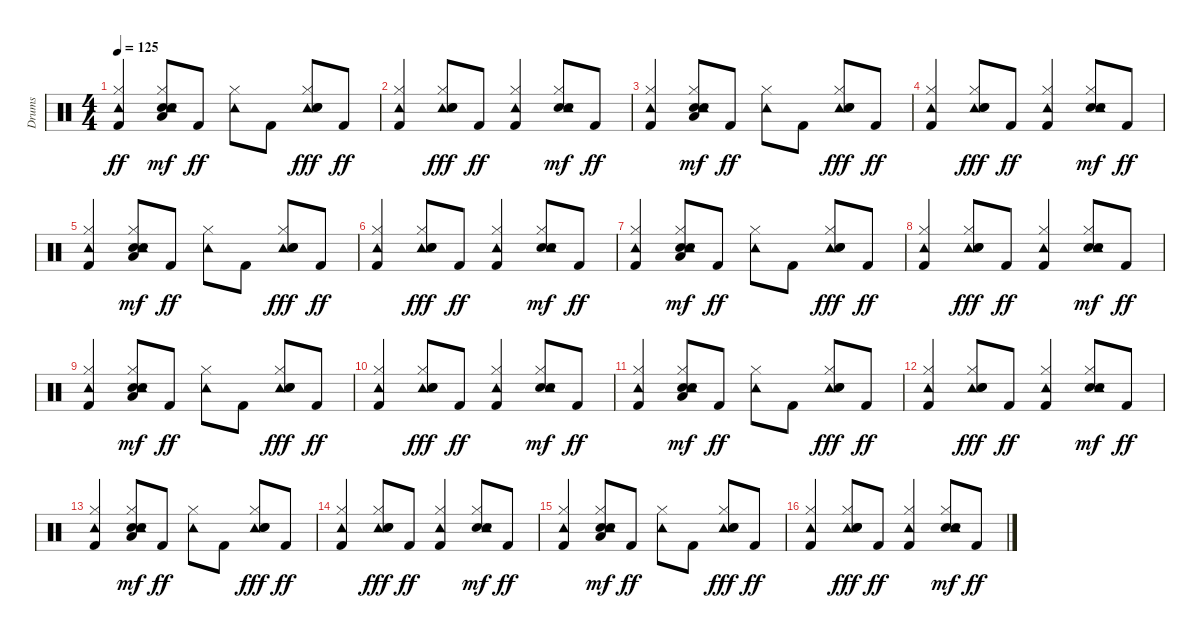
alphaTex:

\track ("Drums" "Drums") {instrument percussion}
\staff {score}
\articulation defaults
\ts (4 4)
\tempo 125
\clef neutral
\ks c
("Tambourine (hit)" "Hi-Hat (closed)" "Kick (hit) 2").4{dy ff} ("Hi-Hat (closed)" "Hand Clap (hit)" "Low Tom (hit)" "Snare (hit) 2" "Tambourine (hit)").8{dy mf} "Kick (hit) 2".8{dy ff} ("Tambourine (hit)" "Hi-Hat (closed)").8 "Kick (hit) 2".8 ("Tambourine (hit)" "Hi-Hat (closed)" "Hand Clap (hit)" "Snare (hit) 2").8{dy fff} "Kick (hit) 2".8{dy ff} |
("Tambourine (hit)" "Hi-Hat (closed)" "Kick (hit) 2").4 ("Tambourine (hit)" "Hi-Hat (closed)" "Hand Clap (hit)" "Snare (hit) 2").8{dy fff} "Kick (hit) 2".8{dy ff} ("Tambourine (hit)" "Hi-Hat (closed)" "Kick (hit) 2").4 ("Hi-Hat (closed)" "Hand Clap (hit)" "Snare (hit) 2" "Tambourine (hit)").8{dy mf} "Kick (hit) 2".8{dy ff} |
("Tambourine (hit)" "Hi-Hat (closed)" "Kick (hit) 2").4 ("Hi-Hat (closed)" "Hand Clap (hit)" "Low Tom (hit)" "Snare (hit) 2" "Tambourine (hit)").8{dy mf} "Kick (hit) 2".8{dy ff} ("Tambourine (hit)" "Hi-Hat (closed)").8 "Kick (hit) 2".8 ("Tambourine (hit)" "Hi-Hat (closed)" "Hand Clap (hit)" "Snare (hit) 2").8{dy fff} "Kick (hit) 2".8{dy ff} |
("Tambourine (hit)" "Hi-Hat (closed)" "Kick (hit) 2").4 ("Tambourine (hit)" "Hi-Hat (closed)" "Hand Clap (hit)" "Snare (hit) 2").8{dy fff} "Kick (hit) 2".8{dy ff} ("Tambourine (hit)" "Hi-Hat (closed)" "Kick (hit) 2").4 ("Hi-Hat (closed)" "Hand Clap (hit)" "Snare (hit) 2" "Tambourine (hit)").8{dy mf} "Kick (hit) 2".8{dy ff} |
("Tambourine (hit)" "Hi-Hat (closed)" "Kick (hit) 2").4 ("Hi-Hat (closed)" "Hand Clap (hit)" "Low Tom (hit)" "Snare (hit) 2" "Tambourine (hit)").8{dy mf} "Kick (hit) 2".8{dy ff} ("Tambourine (hit)" "Hi-Hat (closed)").8 "Kick (hit) 2".8 ("Tambourine (hit)" "Hi-Hat (closed)" "Hand Clap (hit)" "Snare (hit) 2").8{dy fff} "Kick (hit) 2".8{dy ff} |
("Tambourine (hit)" "Hi-Hat (closed)" "Kick (hit) 2").4 ("Tambourine (hit)" "Hi-Hat (closed)" "Hand Clap (hit)" "Snare (hit) 2").8{dy fff} "Kick (hit) 2".8{dy ff} ("Tambourine (hit)" "Hi-Hat (closed)" "Kick (hit) 2").4 ("Hi-Hat (closed)" "Hand Clap (hit)" "Snare (hit) 2" "Tambourine (hit)").8{dy mf} "Kick (hit) 2".8{dy ff} |
("Tambourine (hit)" "Hi-Hat (closed)" "Kick (hit) 2").4 ("Hi-Hat (closed)" "Hand Clap (hit)" "Low Tom (hit)" "Snare (hit) 2" "Tambourine (hit)").8{dy mf} "Kick (hit) 2".8{dy ff} ("Tambourine (hit)" "Hi-Hat (closed)").8 "Kick (hit) 2".8 ("Tambourine (hit)" "Hi-Hat (closed)" "Hand Clap (hit)" "Snare (hit) 2").8{dy fff} "Kick (hit) 2".8{dy ff} |
("Tambourine (hit)" "Hi-Hat (closed)" "Kick (hit) 2").4 ("Tambourine (hit)" "Hi-Hat (closed)" "Hand Clap (hit)" "Snare (hit) 2").8{dy fff} "Kick (hit) 2".8{dy ff} ("Tambourine (hit)" "Hi-Hat (closed)" "Kick (hit) 2").4 ("Hi-Hat (closed)" "Hand Clap (hit)" "Snare (hit) 2" "Tambourine (hit)").8{dy mf} "Kick (hit) 2".8{dy ff} |
("Tambourine (hit)" "Hi-Hat (closed)" "Kick (hit) 2").4 ("Hi-Hat (closed)" "Hand Clap (hit)" "Low Tom (hit)" "Snare (hit) 2" "Tambourine (hit)").8{dy mf} "Kick (hit) 2".8{dy ff} ("Tambourine (hit)" "Hi-Hat (closed)").8 "Kick (hit) 2".8 ("Tambourine (hit)" "Hi-Hat (closed)" "Hand Clap (hit)" "Snare (hit) 2").8{dy fff} "Kick (hit) 2".8{dy ff} |
("Tambourine (hit)" "Hi-Hat (closed)" "Kick (hit) 2").4 ("Tambourine (hit)" "Hi-Hat (closed)" "Hand Clap (hit)" "Snare (hit) 2").8{dy fff} "Kick (hit) 2".8{dy ff} ("Tambourine (hit)" "Hi-Hat (closed)" "Kick (hit) 2").4 ("Hi-Hat (closed)" "Hand Clap (hit)" "Snare (hit) 2" "Tambourine (hit)").8{dy mf} "Kick (hit) 2".8{dy ff} |
("Tambourine (hit)" "Hi-Hat (closed)" "Kick (hit) 2").4 ("Hi-Hat (closed)" "Hand Clap (hit)" "Low Tom (hit)" "Snare (hit) 2" "Tambourine (hit)").8{dy mf} "Kick (hit) 2".8{dy ff} ("Tambourine (hit)" "Hi-Hat (closed)").8 "Kick (hit) 2".8 ("Tambourine (hit)" "Hi-Hat (closed)" "Hand Clap (hit)" "Snare (hit) 2").8{dy fff} "Kick (hit) 2".8{dy ff} |
("Tambourine (hit)" "Hi-Hat (closed)" "Kick (hit) 2").4 ("Tambourine (hit)" "Hi-Hat (closed)" "Hand Clap (hit)" "Snare (hit) 2").8{dy fff} "Kick (hit) 2".8{dy ff} ("Tambourine (hit)" "Hi-Hat (closed)" "Kick (hit) 2").4 ("Hi-Hat (closed)" "Hand Clap (hit)" "Snare (hit) 2" "Tambourine (hit)").8{dy mf} "Kick (hit) 2".8{dy ff} |
("Tambourine (hit)" "Hi-Hat (closed)" "Kick (hit) 2").4 ("Hi-Hat (closed)" "Hand Clap (hit)" "Low Tom (hit)" "Snare (hit) 2" "Tambourine (hit)").8{dy mf} "Kick (hit) 2".8{dy ff} ("Tambourine (hit)" "Hi-Hat (closed)").8 "Kick (hit) 2".8 ("Tambourine (hit)" "Hi-Hat (closed)" "Hand Clap (hit)" "Snare (hit) 2").8{dy fff} "Kick (hit) 2".8{dy ff} |
("Tambourine (hit)" "Hi-Hat (closed)" "Kick (hit) 2").4 ("Tambourine (hit)" "Hi-Hat (closed)" "Hand Clap (hit)" "Snare (hit) 2").8{dy fff} "Kick (hit) 2".8{dy ff} ("Tambourine (hit)" "Hi-Hat (closed)" "Kick (hit) 2").4 ("Hi-Hat (closed)" "Hand Clap (hit)" "Snare (hit) 2" "Tambourine (hit)").8{dy mf} "Kick (hit) 2".8{dy ff} |
("Tambourine (hit)" "Hi-Hat (closed)" "Kick (hit) 2").4 ("Hi-Hat (closed)" "Hand Clap (hit)" "Low Tom (hit)" "Snare (hit) 2" "Tambourine (hit)").8{dy mf} "Kick (hit) 2".8{dy ff} ("Tambourine (hit)" "Hi-Hat (closed)").8 "Kick (hit) 2".8 ("Tambourine (hit)" "Hi-Hat (closed)" "Hand Clap (hit)" "Snare (hit) 2").8{dy fff} "Kick (hit) 2".8{dy ff} |
("Tambourine (hit)" "Hi-Hat (closed)" "Kick (hit) 2").4 ("Tambourine (hit)" "Hi-Hat (closed)" "Hand Clap (hit)" "Snare (hit) 2").8{dy fff} "Kick (hit) 2".8{dy ff} ("Tambourine (hit)" "Hi-Hat (closed)" "Kick (hit) 2").4 ("Hi-Hat (closed)" "Hand Clap (hit)" "Snare (hit) 2" "Tambourine (hit)").8{dy mf} "Kick (hit) 2".8{dy ff}
